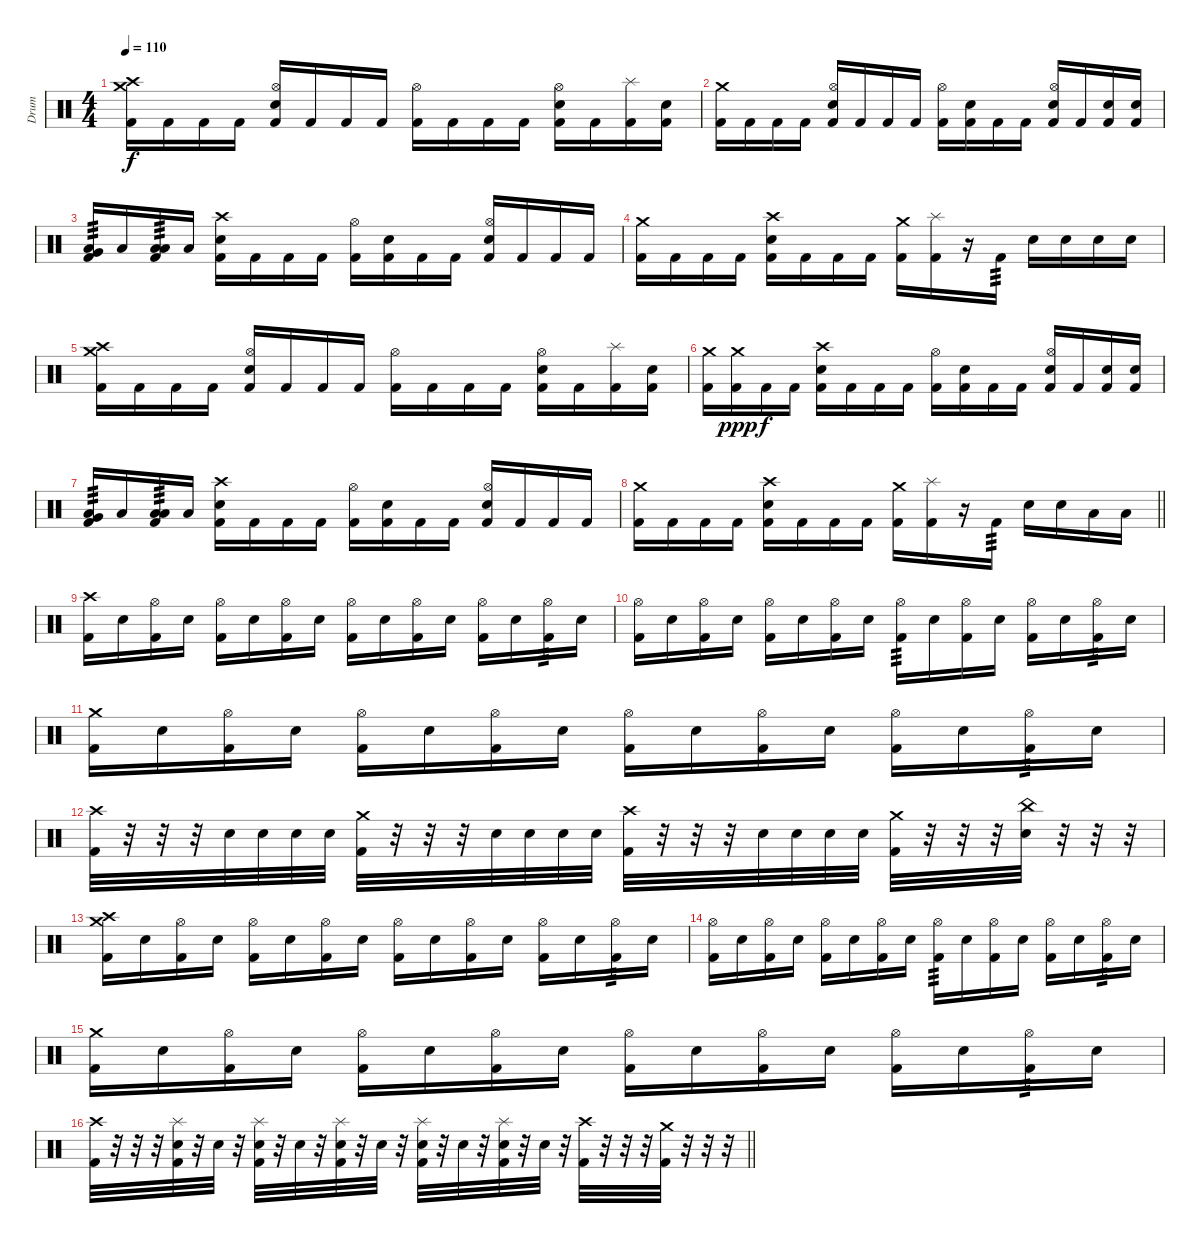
\track ("Drum" "Drum") {instrument percussion}
\staff {score}
\articulation defaults
\ts (4 4)
\section ("" "")
\tempo 110
\clef neutral
\ks c
("Crash medium (hit)" "Crash high (hit)" "Kick (hit) 2").16{dy f} "Kick (hit) 2".16 "Kick (hit) 2".16 "Kick (hit) 2".16 ("Hi-Hat (open)" "Snare (hit) 2" "Kick (hit) 2").16 "Kick (hit) 2".16 "Kick (hit) 2".16 "Kick (hit) 2".16 ("Hi-Hat (open)" "Kick (hit) 2").16 "Kick (hit) 2".16 "Kick (hit) 2".16 "Kick (hit) 2".16 ("Hi-Hat (open)" "Snare (hit) 2" "Kick (hit) 2").16 "Kick (hit) 2".16 ("Splash (hit)" "Kick (hit) 2").16 ("Snare (hit) 2" "Kick (hit) 2").16 |
("Crash medium (hit)" "Kick (hit) 2").16 "Kick (hit) 2".16 "Kick (hit) 2".16 "Kick (hit) 2".16 ("Hi-Hat (open)" "Snare (hit) 2" "Kick (hit) 2").16 "Kick (hit) 2".16 "Kick (hit) 2".16 "Kick (hit) 2".16 ("Hi-Hat (open)" "Kick (hit) 2").16 ("Snare (hit) 2" "Kick (hit) 2").16 "Kick (hit) 2".16 "Kick (hit) 2".16 ("Hi-Hat (open)" "Snare (hit) 2" "Kick (hit) 2").16 "Kick (hit) 2".16 ("Snare (hit) 2" "Kick (hit) 2").16 ("Snare (hit) 2" "Kick (hit) 2").16 |
("Low Floor Tom (hit)" "Very Low Tom (hit)" "Kick (hit) 2").16{tp 3} "Low Floor Tom (hit)".16 ("Low Floor Tom (hit)" "Low Tom (hit)" "Kick (hit) 2").16{tp 3} "Low Floor Tom (hit)".16 ("Crash high (hit)" "Snare (hit) 2" "Kick (hit) 2").16 "Kick (hit) 2".16 "Kick (hit) 2".16 "Kick (hit) 2".16 ("Hi-Hat (open)" "Kick (hit) 2").16 ("Snare (hit) 2" "Kick (hit) 2").16 "Kick (hit) 2".16 "Kick (hit) 2".16 ("Hi-Hat (open)" "Snare (hit) 2" "Kick (hit) 2").16 "Kick (hit) 2".16 "Kick (hit) 2".16 "Kick (hit) 2".16 |
("Crash medium (hit)" "Kick (hit) 2").16 "Kick (hit) 2".16 "Kick (hit) 2".16 "Kick (hit) 2".16 ("Crash high (hit)" "Snare (hit) 2" "Kick (hit) 2").16 "Kick (hit) 2".16 "Kick (hit) 2".16 "Kick (hit) 2".16 ("Crash medium (hit)" "Kick (hit) 2").16 ("Splash (hit)" "Kick (hit) 2").16 r.16 "Kick (hit) 2".16{tp 3} "Snare (hit) 2".16 "Snare (hit) 2".16 "Snare (hit) 2".16 "Snare (hit) 2".16 |
("Crash medium (hit)" "Crash high (hit)" "Kick (hit) 2").16 "Kick (hit) 2".16 "Kick (hit) 2".16 "Kick (hit) 2".16 ("Hi-Hat (open)" "Snare (hit) 2" "Kick (hit) 2").16 "Kick (hit) 2".16 "Kick (hit) 2".16 "Kick (hit) 2".16 ("Hi-Hat (open)" "Kick (hit) 2").16 "Kick (hit) 2".16 "Kick (hit) 2".16 "Kick (hit) 2".16 ("Hi-Hat (open)" "Snare (hit) 2" "Kick (hit) 2").16 "Kick (hit) 2".16 ("Splash (hit)" "Kick (hit) 2").16 ("Snare (hit) 2" "Kick (hit) 2").16 |
("Crash medium (hit)" "Kick (hit) 2").16 ("Crash medium (hit)" "Kick (hit) 2").16{dy ppp} "Kick (hit) 2".16{dy f} "Kick (hit) 2".16 ("Crash high (hit)" "Snare (hit) 2" "Kick (hit) 2").16 "Kick (hit) 2".16 "Kick (hit) 2".16 "Kick (hit) 2".16 ("Hi-Hat (open)" "Kick (hit) 2").16 ("Snare (hit) 2" "Kick (hit) 2").16 "Kick (hit) 2".16 "Kick (hit) 2".16 ("Hi-Hat (open)" "Snare (hit) 2" "Kick (hit) 2").16 "Kick (hit) 2".16 ("Snare (hit) 2" "Kick (hit) 2").16 ("Snare (hit) 2" "Kick (hit) 2").16 |
("Low Floor Tom (hit)" "Very Low Tom (hit)" "Kick (hit) 2").16{tp 3} "Low Floor Tom (hit)".16 ("Low Floor Tom (hit)" "Low Tom (hit)" "Kick (hit) 2").16{tp 3} "Low Floor Tom (hit)".16 ("Crash high (hit)" "Snare (hit) 2" "Kick (hit) 2").16 "Kick (hit) 2".16 "Kick (hit) 2".16 "Kick (hit) 2".16 ("Hi-Hat (open)" "Kick (hit) 2").16 ("Snare (hit) 2" "Kick (hit) 2").16 "Kick (hit) 2".16 "Kick (hit) 2".16 ("Hi-Hat (open)" "Snare (hit) 2" "Kick (hit) 2").16 "Kick (hit) 2".16 "Kick (hit) 2".16 "Kick (hit) 2".16 |
\barLineRight lightlight
("Crash medium (hit)" "Kick (hit) 2").16 "Kick (hit) 2".16 "Kick (hit) 2".16 "Kick (hit) 2".16 ("Crash high (hit)" "Snare (hit) 2" "Kick (hit) 2").16 "Kick (hit) 2".16 "Kick (hit) 2".16 "Kick (hit) 2".16 ("Crash medium (hit)" "Kick (hit) 2").16 ("Splash (hit)" "Kick (hit) 2").16 r.16 "Kick (hit) 2".16{tp 3} "Snare (hit) 2".16 "Snare (hit) 2".16 "Low Floor Tom (hit)".16 "Low Floor Tom (hit)".16 |
\section ("" "")
("Crash high (hit)" "Kick (hit) 2").16 "Snare (hit) 2".16 ("Hi-Hat (open)" "Kick (hit) 2").16 "Snare (hit) 2".16 ("Hi-Hat (open)" "Kick (hit) 2").16 "Snare (hit) 2".16 ("Hi-Hat (open)" "Kick (hit) 2").16 "Snare (hit) 2".16 ("Hi-Hat (open)" "Kick (hit) 2").16 "Snare (hit) 2".16 ("Hi-Hat (open)" "Kick (hit) 2").16 "Snare (hit) 2".16 ("Hi-Hat (open)" "Kick (hit) 2").16 "Snare (hit) 2".16 ("Hi-Hat (open)" "Kick (hit) 2").16{tp 3} "Snare (hit) 2".16 |
("Hi-Hat (open)" "Kick (hit) 2").16 "Snare (hit) 2".16 ("Hi-Hat (open)" "Kick (hit) 2").16 "Snare (hit) 2".16 ("Hi-Hat (open)" "Kick (hit) 2").16 "Snare (hit) 2".16 ("Hi-Hat (open)" "Kick (hit) 2").16 "Snare (hit) 2".16 ("Hi-Hat (open)" "Kick (hit) 2").16{tp 3} "Snare (hit) 2".16 ("Hi-Hat (open)" "Kick (hit) 2").16 "Snare (hit) 2".16 ("Hi-Hat (open)" "Kick (hit) 2").16 "Snare (hit) 2".16 ("Hi-Hat (open)" "Kick (hit) 2").16{tp 3} "Snare (hit) 2".16 |
("Crash medium (hit)" "Kick (hit) 2").16 "Snare (hit) 2".16 ("Hi-Hat (open)" "Kick (hit) 2").16 "Snare (hit) 2".16 ("Hi-Hat (open)" "Kick (hit) 2").16 "Snare (hit) 2".16 ("Hi-Hat (open)" "Kick (hit) 2").16 "Snare (hit) 2".16 ("Hi-Hat (open)" "Kick (hit) 2").16 "Snare (hit) 2".16 ("Hi-Hat (open)" "Kick (hit) 2").16 "Snare (hit) 2".16 ("Hi-Hat (open)" "Kick (hit) 2").16 "Snare (hit) 2".16 ("Hi-Hat (open)" "Kick (hit) 2").16{tp 3} "Snare (hit) 2".16 |
("Crash high (hit)" "Kick (hit) 2").32 r.32 r.32 r.32 "Snare (hit) 2".32 "Snare (hit) 2".32 "Snare (hit) 2".32 "Snare (hit) 2".32 ("Crash medium (hit)" "Kick (hit) 2").32 r.32 r.32 r.32 "Snare (hit) 2".32 "Snare (hit) 2".32 "Snare (hit) 2".32 "Snare (hit) 2".32 ("Crash high (hit)" "Kick (hit) 2").32 r.32 r.32 r.32 "Snare (hit) 2".32 "Snare (hit) 2".32 "Snare (hit) 2".32 "Snare (hit) 2".32 ("Crash medium (hit)" "Kick (hit) 2").32 r.32 r.32 r.32 ("China (hit)" "Snare (hit) 2").32 r.32 r.32 r.32 |
("Crash high (hit)" "Crash medium (hit)" "Kick (hit) 2").16 "Snare (hit) 2".16 ("Hi-Hat (open)" "Kick (hit) 2").16 "Snare (hit) 2".16 ("Hi-Hat (open)" "Kick (hit) 2").16 "Snare (hit) 2".16 ("Hi-Hat (open)" "Kick (hit) 2").16 "Snare (hit) 2".16 ("Hi-Hat (open)" "Kick (hit) 2").16 "Snare (hit) 2".16 ("Hi-Hat (open)" "Kick (hit) 2").16 "Snare (hit) 2".16 ("Hi-Hat (open)" "Kick (hit) 2").16 "Snare (hit) 2".16 ("Hi-Hat (open)" "Kick (hit) 2").16{tp 3} "Snare (hit) 2".16 |
("Hi-Hat (open)" "Kick (hit) 2").16 "Snare (hit) 2".16 ("Hi-Hat (open)" "Kick (hit) 2").16 "Snare (hit) 2".16 ("Hi-Hat (open)" "Kick (hit) 2").16 "Snare (hit) 2".16 ("Hi-Hat (open)" "Kick (hit) 2").16 "Snare (hit) 2".16 ("Hi-Hat (open)" "Kick (hit) 2").16{tp 3} "Snare (hit) 2".16 ("Hi-Hat (open)" "Kick (hit) 2").16 "Snare (hit) 2".16 ("Hi-Hat (open)" "Kick (hit) 2").16 "Snare (hit) 2".16 ("Hi-Hat (open)" "Kick (hit) 2").16{tp 3} "Snare (hit) 2".16 |
("Crash medium (hit)" "Kick (hit) 2").16 "Snare (hit) 2".16 ("Hi-Hat (open)" "Kick (hit) 2").16 "Snare (hit) 2".16 ("Hi-Hat (open)" "Kick (hit) 2").16 "Snare (hit) 2".16 ("Hi-Hat (open)" "Kick (hit) 2").16 "Snare (hit) 2".16 ("Hi-Hat (open)" "Kick (hit) 2").16 "Snare (hit) 2".16 ("Hi-Hat (open)" "Kick (hit) 2").16 "Snare (hit) 2".16 ("Hi-Hat (open)" "Kick (hit) 2").16 "Snare (hit) 2".16 ("Hi-Hat (open)" "Kick (hit) 2").16{tp 3} "Snare (hit) 2".16 |
\barLineRight lightlight
("Crash high (hit)" "Kick (hit) 2").32 r.32 r.32 r.32 ("Splash (hit)" "Snare (hit) 2" "Kick (hit) 2").32 r.32 "Snare (hit) 2".32 r.32 ("Splash (hit)" "Snare (hit) 2" "Kick (hit) 2").32 r.32 "Snare (hit) 2".32 r.32 ("Splash (hit)" "Snare (hit) 2" "Kick (hit) 2").32 r.32 "Snare (hit) 2".32 r.32 ("Splash (hit)" "Snare (hit) 2" "Kick (hit) 2").32 r.32 "Snare (hit) 2".32 r.32 ("Splash (hit)" "Snare (hit) 2" "Kick (hit) 2").32 r.32 "Snare (hit) 2".32 r.32 ("Crash high (hit)" "Kick (hit) 2").32 r.32 r.32 r.32 ("Crash medium (hit)" "Kick (hit) 2").32 r.32 r.32 r.32
